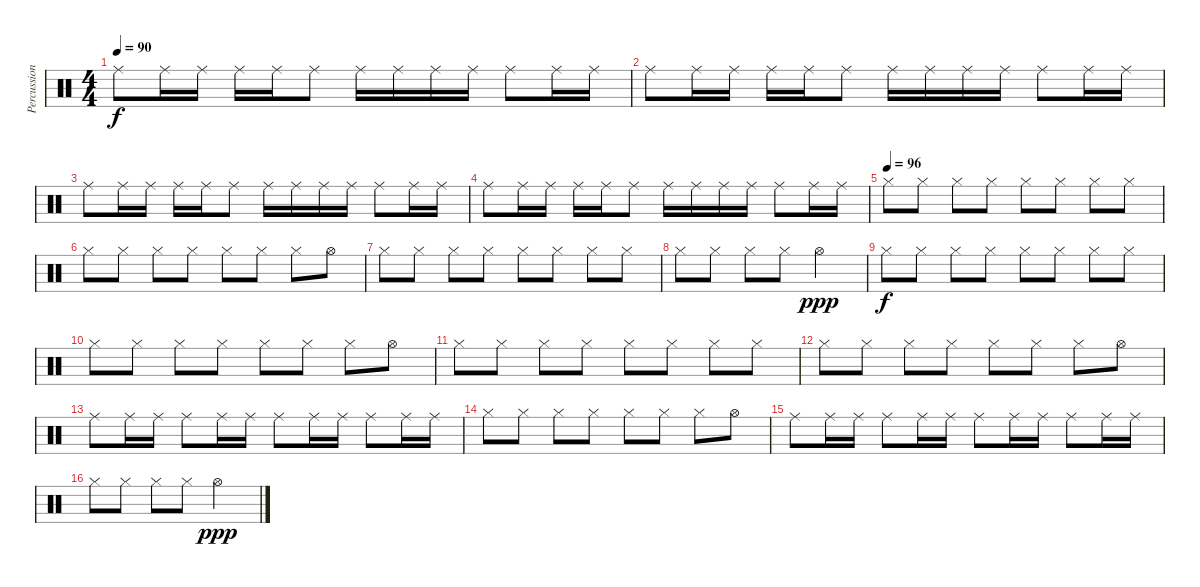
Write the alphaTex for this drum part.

\track ("Percussion" "Percussion") {instrument percussion}
\staff {score}
\articulation defaults
\ts (4 4)
\tempo 90
\clef neutral
\ks c "Ride (middle)".8{dy f} "Ride (middle)".16 "Ride (middle)".16 "Ride (middle)".16 "Ride (middle)".16 "Ride (middle)".8 "Ride (middle)".16 "Ride (middle)".16 "Ride (middle)".16 "Ride (middle)".16 "Ride (middle)".8 "Ride (middle)".16 "Ride (middle)".16
|
"Ride (middle)".8 "Ride (middle)".16 "Ride (middle)".16 "Ride (middle)".16 "Ride (middle)".16 "Ride (middle)".8 "Ride (middle)".16 "Ride (middle)".16 "Ride (middle)".16 "Ride (middle)".16 "Ride (middle)".8 "Ride (middle)".16 "Ride (middle)".16 |
"Ride (middle)".8 "Ride (middle)".16 "Ride (middle)".16 "Ride (middle)".16 "Ride (middle)".16 "Ride (middle)".8 "Ride (middle)".16 "Ride (middle)".16 "Ride (middle)".16 "Ride (middle)".16 "Ride (middle)".8 "Ride (middle)".16 "Ride (middle)".16 |
"Ride (middle)".8 "Ride (middle)".16 "Ride (middle)".16 "Ride (middle)".16 "Ride (middle)".16 "Ride (middle)".8 "Ride (middle)".16 "Ride (middle)".16 "Ride (middle)".16 "Ride (middle)".16 "Ride (middle)".8 "Ride (middle)".16 "Ride (middle)".16 |
\tempo (96)
"Hi-Hat (closed)".8 "Hi-Hat (closed)".8 "Hi-Hat (closed)".8 "Hi-Hat (closed)".8 "Hi-Hat (closed)".8 "Hi-Hat (closed)".8 "Hi-Hat (closed)".8 "Hi-Hat (closed)".8 |
"Hi-Hat (closed)".8 "Hi-Hat (closed)".8 "Hi-Hat (closed)".8 "Hi-Hat (closed)".8 "Hi-Hat (closed)".8 "Hi-Hat (closed)".8 "Hi-Hat (closed)".8 "Hi-Hat (open)".8 |
"Hi-Hat (closed)".8 "Hi-Hat (closed)".8 "Hi-Hat (closed)".8 "Hi-Hat (closed)".8 "Hi-Hat (closed)".8 "Hi-Hat (closed)".8 "Hi-Hat (closed)".8 "Hi-Hat (closed)".8 |
"Hi-Hat (closed)".8 "Hi-Hat (closed)".8 "Hi-Hat (closed)".8 "Hi-Hat (closed)".8 "Hi-Hat (open)".2{dy ppp} |
"Hi-Hat (closed)".8{dy f} "Hi-Hat (closed)".8 "Hi-Hat (closed)".8 "Hi-Hat (closed)".8 "Hi-Hat (closed)".8 "Hi-Hat (closed)".8 "Hi-Hat (closed)".8 "Hi-Hat (closed)".8 |
"Hi-Hat (closed)".8 "Hi-Hat (closed)".8 "Hi-Hat (closed)".8 "Hi-Hat (closed)".8 "Hi-Hat (closed)".8 "Hi-Hat (closed)".8 "Hi-Hat (closed)".8 "Hi-Hat (open)".8 |
"Hi-Hat (closed)".8 "Hi-Hat (closed)".8 "Hi-Hat (closed)".8 "Hi-Hat (closed)".8 "Hi-Hat (closed)".8 "Hi-Hat (closed)".8 "Hi-Hat (closed)".8 "Hi-Hat (closed)".8 |
"Hi-Hat (closed)".8 "Hi-Hat (closed)".8 "Hi-Hat (closed)".8 "Hi-Hat (closed)".8 "Hi-Hat (closed)".8 "Hi-Hat (closed)".8 "Hi-Hat (closed)".8 "Hi-Hat (open)".8 |
"Ride (middle)".8 "Ride (middle)".16 "Ride (middle)".16 "Ride (middle)".8 "Ride (middle)".16 "Ride (middle)".16 "Ride (middle)".8 "Ride (middle)".16 "Ride (middle)".16 "Ride (middle)".8 "Ride (middle)".16 "Ride (middle)".16 |
"Hi-Hat (closed)".8 "Hi-Hat (closed)".8 "Hi-Hat (closed)".8 "Hi-Hat (closed)".8 "Hi-Hat (closed)".8 "Hi-Hat (closed)".8 "Hi-Hat (closed)".8 "Hi-Hat (open)".8 |
"Ride (middle)".8 "Ride (middle)".16 "Ride (middle)".16 "Ride (middle)".8 "Ride (middle)".16 "Ride (middle)".16 "Ride (middle)".8 "Ride (middle)".16 "Ride (middle)".16 "Ride (middle)".8 "Ride (middle)".16 "Ride (middle)".16 |
"Hi-Hat (closed)".8 "Hi-Hat (closed)".8 "Hi-Hat (closed)".8 "Hi-Hat (closed)".8 "Hi-Hat (open)".2{dy ppp}
